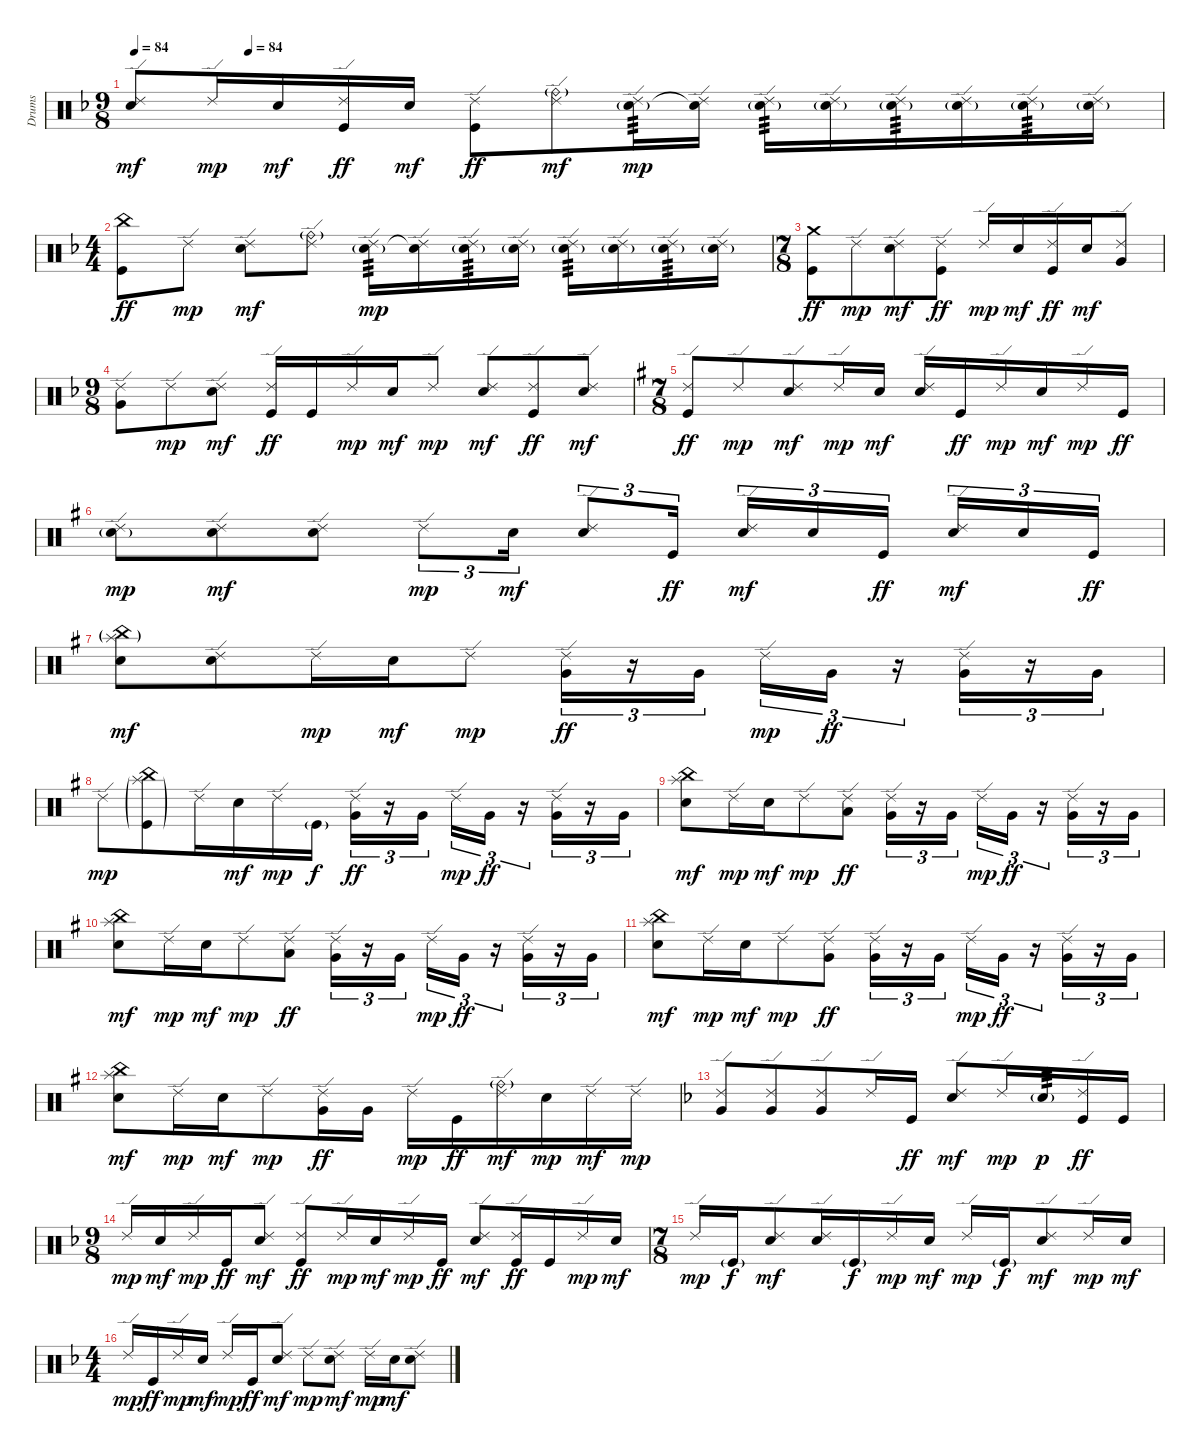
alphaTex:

\track ("Drums" "Drums") {instrument percussion}
\staff {score}
\articulation defaults
\ts (9 8)
\tempo 84
\tempo (84 0.1111111111111111)
\clef neutral
\ks dminor
("Ride (edge) 2" "Electric Snare (hit)").8{dy mf} "Ride (edge) 2".16{dy mp} "Electric Snare (hit)".16{dy mf} ("Ride (edge) 2" "Kick (hit)").16{dy ff} "Electric Snare (hit)".16{dy mf} ("Ride (edge) 2" "Kick (hit)").8{dy ff} ("Ride (edge) 2" "Ride (bell)"{g}).8{dy mf} ("Ride (edge) 2" "Electric Snare (hit)"{g}).16{tp 3 dy mp} ("Ride (edge) 2" "Electric Snare (hit)"{t}).16 ("Ride (edge) 2" "Electric Snare (hit)"{g}).16{tp 3} ("Ride (edge) 2" "Electric Snare (hit)"{g}).16 ("Ride (edge) 2" "Electric Snare (hit)"{g}).16{tp 3} ("Ride (edge) 2" "Electric Snare (hit)"{g}).16 ("Ride (edge) 2" "Electric Snare (hit)"{g}).16{tp 3} ("Ride (edge) 2" "Electric Snare (hit)"{g}).16 |
\ts (4 4)
("China (hit)" "Kick (hit)").8{dy ff} "Ride (edge) 2".8{dy mp} ("Ride (edge) 2" "Electric Snare (hit)").8{dy mf} ("Ride (edge) 2" "Ride (bell)"{g}).8 ("Ride (edge) 2" "Electric Snare (hit)"{g}).16{tp 3 dy mp} ("Ride (edge) 2" "Electric Snare (hit)"{t}).16 ("Ride (edge) 2" "Electric Snare (hit)"{g}).16{tp 3} ("Ride (edge) 2" "Electric Snare (hit)"{g}).16 ("Ride (edge) 2" "Electric Snare (hit)"{g}).16{tp 3} ("Ride (edge) 2" "Electric Snare (hit)"{g}).16 ("Ride (edge) 2" "Electric Snare (hit)"{g}).16{tp 3} ("Ride (edge) 2" "Electric Snare (hit)"{g}).16 |
\ts (7 8)
("Crash medium (hit)" "Kick (hit)").8{dy ff} "Ride (edge) 2".8{dy mp} ("Ride (edge) 2" "Electric Snare (hit)").8{dy mf} ("Ride (edge) 2" "Kick (hit)").8{dy ff} "Ride (edge) 2".16{dy mp} "Electric Snare (hit)".16{dy mf} ("Ride (edge) 2" "Kick (hit)").16{dy ff} "Electric Snare (hit)".16{dy mf} ("Ride (edge) 2" "Very Low Tom (hit)").8 |
\ts (9 8)
("Ride (edge) 2" "Very Low Tom (hit)").8 "Ride (edge) 2".8{dy mp} ("Ride (edge) 2" "Electric Snare (hit)").8{dy mf} ("Ride (edge) 2" "Kick (hit)").16{dy ff} "Kick (hit)".16 "Ride (edge) 2".16{dy mp} "Electric Snare (hit)".16{dy mf} "Ride (edge) 2".8{dy mp} ("Ride (edge) 2" "Electric Snare (hit)").8{dy mf} ("Ride (edge) 2" "Kick (hit)").8{dy ff} ("Ride (edge) 2" "Electric Snare (hit)").8{dy mf} |
\ts (7 8)
\ks eminor
("Ride (edge) 2" "Kick (hit)").8{dy ff} "Ride (edge) 2".8{dy mp} ("Ride (edge) 2" "Electric Snare (hit)").8{dy mf} "Ride (edge) 2".16{dy mp} "Electric Snare (hit)".16{dy mf} ("Ride (edge) 2" "Electric Snare (hit)").16 "Kick (hit)".16{dy ff} "Ride (edge) 2".16{dy mp} "Electric Snare (hit)".16{dy mf} "Ride (edge) 2".16{dy mp} "Kick (hit)".16{dy ff} |
("Ride (edge) 2" "Electric Snare (hit)"{g}).8{dy mp} ("Ride (edge) 2" "Electric Snare (hit)").8{dy mf} ("Ride (edge) 2" "Electric Snare (hit)").8 "Ride (edge) 2".8{tu (3 2) dy mp} "Electric Snare (hit)".16{tu (3 2) dy mf} ("Ride (edge) 2" "Electric Snare (hit)").8{tu (3 2)} "Kick (hit)".16{tu (3 2) dy ff} ("Ride (edge) 2" "Electric Snare (hit)").16{tu (3 2) dy mf} "Electric Snare (hit)".16{tu (3 2)} "Kick (hit)".16{tu (3 2) dy ff} ("Ride (edge) 2" "Electric Snare (hit)").16{tu (3 2) dy mf} "Electric Snare (hit)".16{tu (3 2)} "Kick (hit)".16{tu (3 2) dy ff} |
("China (hit)"{g} "Splash (hit)"{g} "Electric Snare (hit)").8{dy mf} ("Ride (edge) 2" "Electric Snare (hit)").8 "Ride (edge) 2".16{dy mp} "Electric Snare (hit)".16{dy mf} "Ride (edge) 2".8{dy mp} ("Ride (edge) 2" "Very Low Tom (hit)").16{tu (3 2) dy ff} r.16{tu (3 2)} "Very Low Tom (hit)".16{tu (3 2)} "Ride (edge) 2".16{tu (3 2) dy mp} "Very Low Tom (hit)".16{tu (3 2) dy ff} r.16{tu (3 2)} ("Ride (edge) 2" "Very Low Tom (hit)").16{tu (3 2)} r.16{tu (3 2)} "Very Low Tom (hit)".16{tu (3 2)} |
"Ride (edge) 2".8{dy mp} ("China (hit)" "Splash (hit)"{g} "Kick (hit)"{g}).8 "Ride (edge) 2".16 "Electric Snare (hit)".16{dy mf} "Ride (edge) 2".16{dy mp} "Kick (hit)"{g}.16{dy f} ("Ride (edge) 2" "Very Low Tom (hit)").16{tu (3 2) dy ff} r.16{tu (3 2)} "Very Low Tom (hit)".16{tu (3 2)} "Ride (edge) 2".16{tu (3 2) dy mp} "Very Low Tom (hit)".16{tu (3 2) dy ff} r.16{tu (3 2)} ("Ride (edge) 2" "Very Low Tom (hit)").16{tu (3 2)} r.16{tu (3 2)} "Very Low Tom (hit)".16{tu (3 2)} |
("China (hit)" "Splash (hit)" "Electric Snare (hit)").8{dy mf} "Ride (edge) 2".16{dy mp} "Electric Snare (hit)".16{dy mf} "Ride (edge) 2".8{dy mp} ("Ride (edge) 2" "Low Tom (hit)").8{dy ff} ("Ride (edge) 2" "Very Low Tom (hit)").16{tu (3 2)} r.16{tu (3 2)} "Very Low Tom (hit)".16{tu (3 2)} "Ride (edge) 2".16{tu (3 2) dy mp} "Very Low Tom (hit)".16{tu (3 2) dy ff} r.16{tu (3 2)} ("Ride (edge) 2" "Very Low Tom (hit)").16{tu (3 2)} r.16{tu (3 2)} "Very Low Tom (hit)".16{tu (3 2)} |
("China (hit)" "Splash (hit)" "Electric Snare (hit)").8{dy mf} "Ride (edge) 2".16{dy mp} "Electric Snare (hit)".16{dy mf} "Ride (edge) 2".8{dy mp} ("Ride (edge) 2" "Low Tom (hit)").8{dy ff} ("Ride (edge) 2" "Very Low Tom (hit)").16{tu (3 2)} r.16{tu (3 2)} "Very Low Tom (hit)".16{tu (3 2)} "Ride (edge) 2".16{tu (3 2) dy mp} "Very Low Tom (hit)".16{tu (3 2) dy ff} r.16{tu (3 2)} ("Ride (edge) 2" "Very Low Tom (hit)").16{tu (3 2)} r.16{tu (3 2)} "Very Low Tom (hit)".16{tu (3 2)} |
("China (hit)" "Splash (hit)" "Electric Snare (hit)").8{dy mf} "Ride (edge) 2".16{dy mp} "Electric Snare (hit)".16{dy mf} "Ride (edge) 2".8{dy mp} ("Ride (edge) 2" "Very Low Tom (hit)").8{dy ff} ("Ride (edge) 2" "Very Low Tom (hit)").16{tu (3 2)} r.16{tu (3 2)} "Very Low Tom (hit)".16{tu (3 2)} "Ride (edge) 2".16{tu (3 2) dy mp} "Very Low Tom (hit)".16{tu (3 2) dy ff} r.16{tu (3 2)} ("Ride (edge) 2" "Very Low Tom (hit)").16{tu (3 2)} r.16{tu (3 2)} "Very Low Tom (hit)".16{tu (3 2)} |
("China (hit)" "Splash (hit)" "Electric Snare (hit)").8{dy mf} "Ride (edge) 2".16{dy mp} "Electric Snare (hit)".16{dy mf} "Ride (edge) 2".8{dy mp} ("Ride (edge) 2" "Very Low Tom (hit)").16{dy ff} "Very Low Tom (hit)".16 "Ride (edge) 2".16{dy mp} "Kick (hit)".16{dy ff} ("Ride (edge) 2" "Ride (bell)"{g}).16{dy mf} "Electric Snare (hit)".16{dy mp} "Ride (edge) 2".16{dy mf} "Ride (edge) 2".16{dy mp} |
\ks dminor
("Ride (edge) 2" "Very Low Tom (hit)").8 ("Ride (edge) 2" "Very Low Tom (hit)").8 ("Ride (edge) 2" "Very Low Tom (hit)").8 "Ride (edge) 2".16 "Kick (hit)".16{dy ff} ("Ride (edge) 2" "Electric Snare (hit)").8{dy mf} "Ride (edge) 2".16{dy mp} "Electric Snare (hit)"{g}.16{tp 3 dy p} ("Ride (edge) 2" "Kick (hit)").16{dy ff} "Kick (hit)".16 |
\ts (9 8)
"Ride (edge) 2".16{dy mp} "Electric Snare (hit)".16{dy mf} "Ride (edge) 2".16{dy mp} "Kick (hit)".16{dy ff} ("Ride (edge) 2" "Electric Snare (hit)").8{dy mf} ("Ride (edge) 2" "Kick (hit)").8{dy ff} "Ride (edge) 2".16{dy mp} "Electric Snare (hit)".16{dy mf} "Ride (edge) 2".16{dy mp} "Kick (hit)".16{dy ff} ("Ride (edge) 2" "Electric Snare (hit)").8{dy mf} ("Ride (edge) 2" "Kick (hit)").16{dy ff} "Kick (hit)".16 "Ride (edge) 2".16{dy mp} "Electric Snare (hit)".16{dy mf} |
\ts (7 8)
"Ride (edge) 2".16{dy mp} "Kick (hit)"{g}.16{dy f} ("Ride (edge) 2" "Electric Snare (hit)").8{dy mf} ("Ride (edge) 2" "Electric Snare (hit)").16 "Kick (hit)"{g}.16{dy f} "Ride (edge) 2".16{dy mp} "Electric Snare (hit)".16{dy mf} "Ride (edge) 2".16{dy mp} "Kick (hit)"{g}.16{dy f} ("Ride (edge) 2" "Electric Snare (hit)").8{dy mf} "Ride (edge) 2".16{dy mp} "Electric Snare (hit)".16{dy mf} |
\ts (4 4)
"Ride (edge) 2".16{dy mp} "Kick (hit)".16{dy ff} "Ride (edge) 2".16{dy mp} "Electric Snare (hit)".16{dy mf} "Ride (edge) 2".16{dy mp} "Kick (hit)".16{dy ff} ("Ride (edge) 2" "Electric Snare (hit)").8{dy mf} "Ride (edge) 2".8{dy mp} ("Ride (edge) 2" "Electric Snare (hit)").8{dy mf} "Ride (edge) 2".16{dy mp} "Electric Snare (hit)".16{dy mf} ("Ride (edge) 2" "Electric Snare (hit)").8
